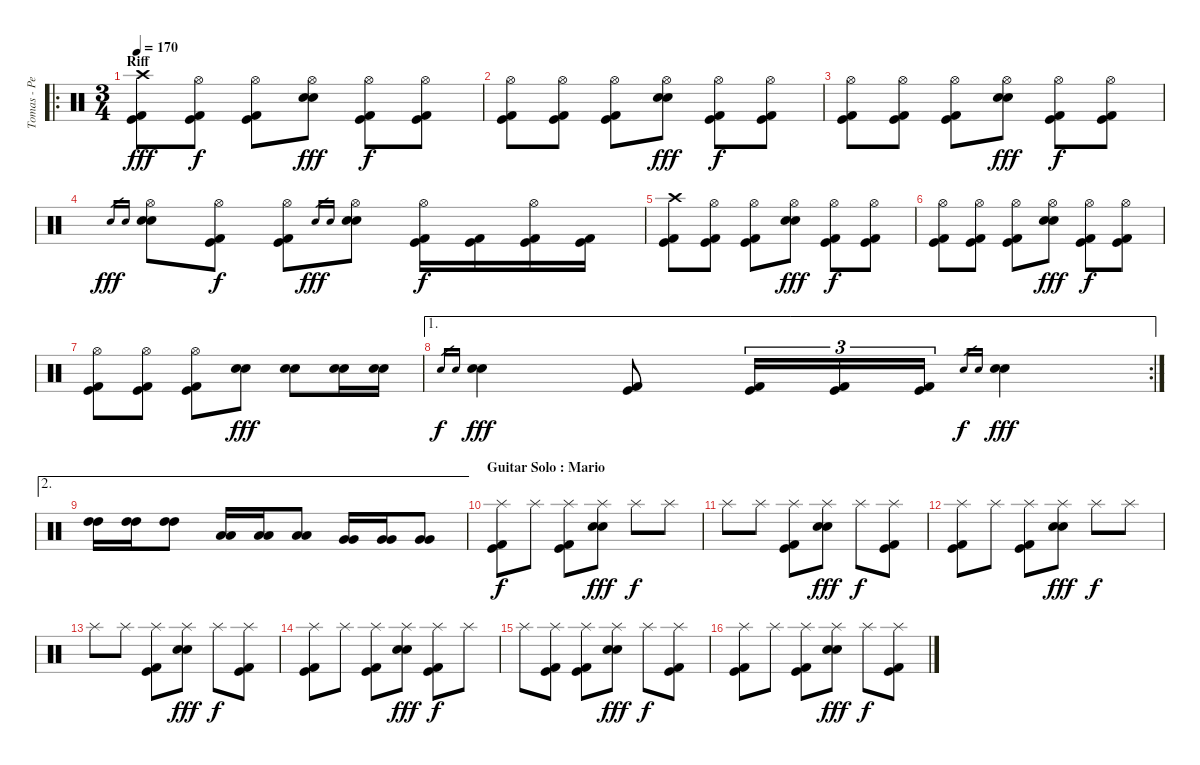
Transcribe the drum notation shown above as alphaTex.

\track ("Tomas - Percussions" "Tomas - Pe") {instrument percussion}
\staff {score}
\articulation defaults
\ro
\ts (3 4)
\section ("" "Riff")
\tempo 170
\clef neutral
\ks c
("Crash high (hit)" "Kick (hit)" "Kick (hit) 2").8{dy fff} ("Hi-Hat (open)" "Kick (hit)" "Kick (hit) 2").8{dy f} ("Hi-Hat (open)" "Kick (hit)" "Kick (hit) 2").8 ("Hi-Hat (open)" "Electric Snare (hit)" "Electric Snare (hit)").8{dy fff} ("Hi-Hat (open)" "Kick (hit)" "Kick (hit) 2").8{dy f} ("Hi-Hat (open)" "Kick (hit)" "Kick (hit) 2").8 |
("Hi-Hat (open)" "Kick (hit)" "Kick (hit) 2").8 ("Hi-Hat (open)" "Kick (hit)" "Kick (hit) 2").8 ("Hi-Hat (open)" "Kick (hit)" "Kick (hit) 2").8 ("Hi-Hat (open)" "Electric Snare (hit)" "Electric Snare (hit)").8{dy fff} ("Hi-Hat (open)" "Kick (hit)" "Kick (hit) 2").8{dy f} ("Hi-Hat (open)" "Kick (hit)" "Kick (hit) 2").8 |
("Hi-Hat (open)" "Kick (hit)" "Kick (hit) 2").8 ("Hi-Hat (open)" "Kick (hit)" "Kick (hit) 2").8 ("Hi-Hat (open)" "Kick (hit)" "Kick (hit) 2").8 ("Hi-Hat (open)" "Electric Snare (hit)" "Electric Snare (hit)").8{dy fff} ("Hi-Hat (open)" "Kick (hit)" "Kick (hit) 2").8{dy f} ("Hi-Hat (open)" "Kick (hit)" "Kick (hit) 2").8 |
"Electric Snare (hit)".16{gr dy fff} "Electric Snare (hit)".16{gr} ("Hi-Hat (open)" "Electric Snare (hit)" "Electric Snare (hit)").8 ("Hi-Hat (open)" "Kick (hit)" "Kick (hit) 2").8{dy f} ("Hi-Hat (open)" "Kick (hit)" "Kick (hit) 2").8 "Electric Snare (hit)".16{gr dy fff} "Electric Snare (hit)".16{gr} ("Hi-Hat (open)" "Electric Snare (hit)" "Electric Snare (hit)").8 ("Hi-Hat (open)" "Kick (hit)" "Kick (hit) 2").16{dy f} ("Kick (hit)" "Kick (hit) 2").16 ("Hi-Hat (open)" "Kick (hit)" "Kick (hit) 2").16 ("Kick (hit)" "Kick (hit) 2").16 |
("Crash high (hit)" "Kick (hit)" "Kick (hit) 2").8 ("Hi-Hat (open)" "Kick (hit)" "Kick (hit) 2").8 ("Hi-Hat (open)" "Kick (hit)" "Kick (hit) 2").8 ("Hi-Hat (open)" "Electric Snare (hit)" "Electric Snare (hit)").8{dy fff} ("Hi-Hat (open)" "Kick (hit)" "Kick (hit) 2").8{dy f} ("Hi-Hat (open)" "Kick (hit)" "Kick (hit) 2").8 |
("Hi-Hat (open)" "Kick (hit)" "Kick (hit) 2").8 ("Hi-Hat (open)" "Kick (hit)" "Kick (hit) 2").8 ("Hi-Hat (open)" "Kick (hit)" "Kick (hit) 2").8 ("Hi-Hat (open)" "Electric Snare (hit)" "Electric Snare (hit)").8{dy fff} ("Hi-Hat (open)" "Kick (hit)" "Kick (hit) 2").8{dy f} ("Hi-Hat (open)" "Kick (hit)" "Kick (hit) 2").8 |
("Hi-Hat (open)" "Kick (hit)" "Kick (hit) 2").8 ("Hi-Hat (open)" "Kick (hit)" "Kick (hit) 2").8 ("Hi-Hat (open)" "Kick (hit)" "Kick (hit) 2").8 ("Electric Snare (hit)" "Electric Snare (hit)").8{dy fff} ("Electric Snare (hit)" "Electric Snare (hit)").8 ("Electric Snare (hit)" "Electric Snare (hit)").16 ("Electric Snare (hit)" "Electric Snare (hit)").16 |
\ae 1
\rc 2 "Electric Snare (hit)".16{gr dy f} "Electric Snare (hit)".16{gr}
("Electric Snare (hit)" "Electric Snare (hit)").4{dy fff} ("Kick (hit)" "Kick (hit) 2").8 ("Kick (hit)" "Kick (hit) 2").16{tu (3 2)} ("Kick (hit)" "Kick (hit) 2").16{tu (3 2)} ("Kick (hit)" "Kick (hit) 2").16{tu (3 2)} "Electric Snare (hit)".16{gr dy f} "Electric Snare (hit)".16{gr} ("Electric Snare (hit)" "Electric Snare (hit)").4{dy fff} |
\ae 2
("High Tom (hit)" "High Tom (hit)").16 ("High Tom (hit)" "High Tom (hit)").16 ("High Tom (hit)" "High Tom (hit)").8 ("Low Tom (hit)" "Low Tom (hit)").16 ("Low Tom (hit)" "Low Tom (hit)").16 ("Low Tom (hit)" "Low Tom (hit)").8 ("Very Low Tom (hit)" "Very Low Tom (hit)").16 ("Very Low Tom (hit)" "Very Low Tom (hit)").16 ("Very Low Tom (hit)" "Very Low Tom (hit)").8 |
\section ("" "Guitar Solo : Mario ")
("Splash (hit)" "Kick (hit)" "Kick (hit) 2").8{dy f} "Splash (hit)".8 ("Splash (hit)" "Kick (hit)" "Kick (hit) 2").8 ("Splash (hit)" "Electric Snare (hit)" "Electric Snare (hit)").8{dy fff} "Splash (hit)".8{dy f} "Splash (hit)".8 |
"Splash (hit)".8 "Splash (hit)".8 ("Splash (hit)" "Kick (hit)" "Kick (hit) 2").8 ("Splash (hit)" "Electric Snare (hit)" "Electric Snare (hit)").8{dy fff} "Splash (hit)".8{dy f} ("Splash (hit)" "Kick (hit)" "Kick (hit) 2").8 |
("Splash (hit)" "Kick (hit)" "Kick (hit) 2").8 "Splash (hit)".8 ("Splash (hit)" "Kick (hit)" "Kick (hit) 2").8 ("Splash (hit)" "Electric Snare (hit)" "Electric Snare (hit)").8{dy fff} "Splash (hit)".8{dy f} "Splash (hit)".8 |
"Splash (hit)".8 "Splash (hit)".8 ("Splash (hit)" "Kick (hit)" "Kick (hit) 2").8 ("Splash (hit)" "Electric Snare (hit)" "Electric Snare (hit)").8{dy fff} "Splash (hit)".8{dy f} ("Splash (hit)" "Kick (hit)" "Kick (hit) 2").8 |
("Splash (hit)" "Kick (hit)" "Kick (hit) 2").8 "Splash (hit)".8 ("Splash (hit)" "Kick (hit)" "Kick (hit) 2").8 ("Splash (hit)" "Electric Snare (hit)" "Electric Snare (hit)").8{dy fff} ("Splash (hit)" "Kick (hit)" "Kick (hit) 2").8{dy f} "Splash (hit)".8 |
"Splash (hit)".8 ("Splash (hit)" "Kick (hit)" "Kick (hit) 2").8 ("Splash (hit)" "Kick (hit)" "Kick (hit) 2").8 ("Splash (hit)" "Electric Snare (hit)" "Electric Snare (hit)").8{dy fff} "Splash (hit)".8{dy f} ("Splash (hit)" "Kick (hit)" "Kick (hit) 2").8 |
("Splash (hit)" "Kick (hit)" "Kick (hit) 2").8 "Splash (hit)".8 ("Splash (hit)" "Kick (hit)" "Kick (hit) 2").8 ("Splash (hit)" "Electric Snare (hit)" "Electric Snare (hit)").8{dy fff} "Splash (hit)".8{dy f} ("Splash (hit)" "Kick (hit)" "Kick (hit) 2").8
